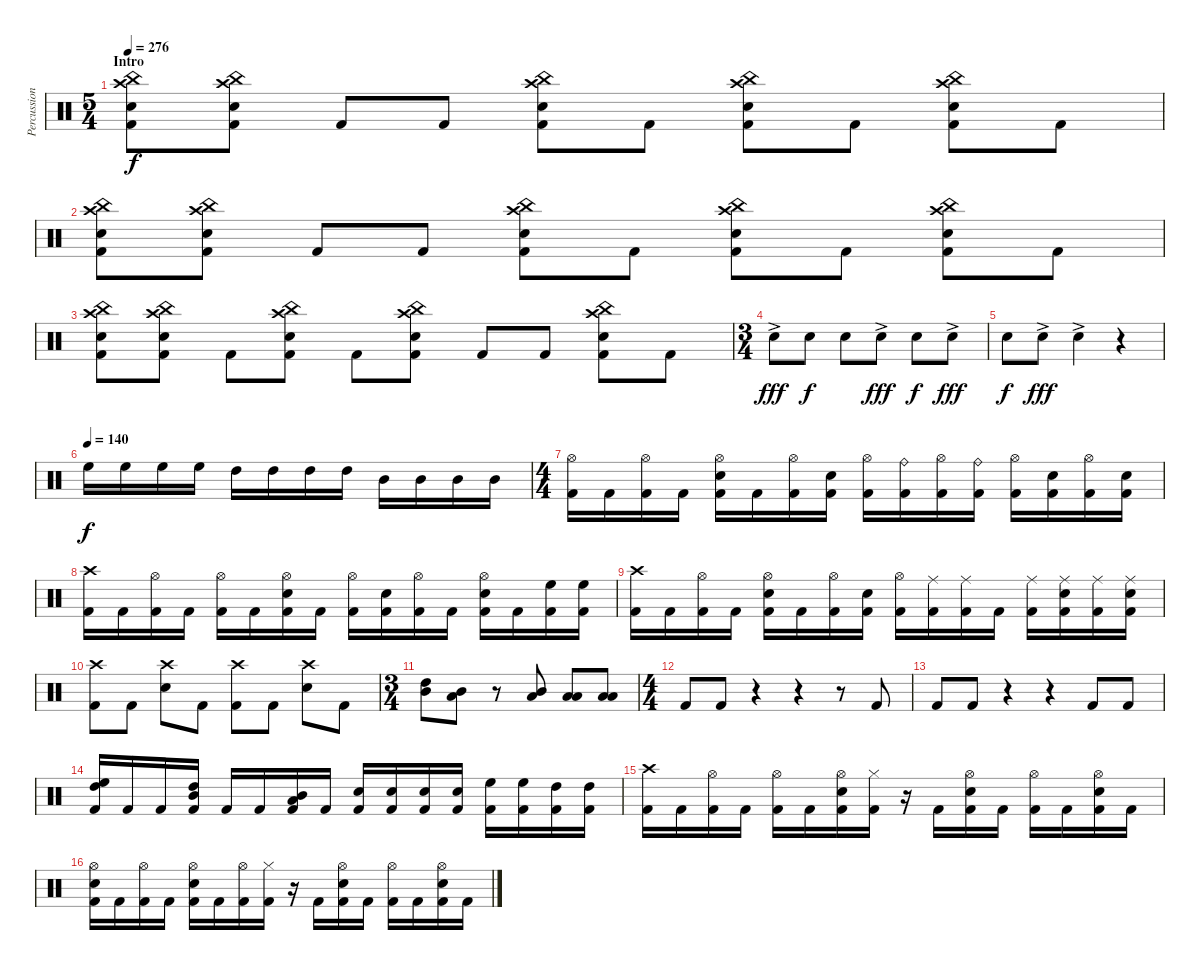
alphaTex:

\track ("Percussion" "Percussion") {instrument percussion}
\staff {score}
\articulation defaults
\ts (5 4)
\section ("" "Intro")
\tempo 276
\clef neutral
\ks c
("China (hit)" "Crash high (hit)" "Electric Snare (hit)" "Kick (hit) 2").8{dy f} ("China (hit)" "Crash high (hit)" "Electric Snare (hit)" "Kick (hit) 2").8 "Kick (hit) 2".8 "Kick (hit) 2".8 ("China (hit)" "Crash high (hit)" "Electric Snare (hit)" "Kick (hit) 2").8 "Kick (hit) 2".8 ("China (hit)" "Crash high (hit)" "Electric Snare (hit)" "Kick (hit) 2").8 "Kick (hit) 2".8 ("China (hit)" "Crash high (hit)" "Electric Snare (hit)" "Kick (hit) 2").8 "Kick (hit) 2".8 |
("China (hit)" "Crash high (hit)" "Electric Snare (hit)" "Kick (hit) 2").8 ("China (hit)" "Crash high (hit)" "Electric Snare (hit)" "Kick (hit) 2").8 "Kick (hit) 2".8 "Kick (hit) 2".8 ("China (hit)" "Crash high (hit)" "Electric Snare (hit)" "Kick (hit) 2").8 "Kick (hit) 2".8 ("China (hit)" "Crash high (hit)" "Electric Snare (hit)" "Kick (hit) 2").8 "Kick (hit) 2".8 ("China (hit)" "Crash high (hit)" "Electric Snare (hit)" "Kick (hit) 2").8 "Kick (hit) 2".8 |
("China (hit)" "Crash high (hit)" "Electric Snare (hit)" "Kick (hit) 2").8 ("China (hit)" "Crash high (hit)" "Electric Snare (hit)" "Kick (hit) 2").8 "Kick (hit) 2".8 ("China (hit)" "Crash high (hit)" "Electric Snare (hit)" "Kick (hit) 2").8 "Kick (hit) 2".8 ("China (hit)" "Crash high (hit)" "Electric Snare (hit)" "Kick (hit) 2").8 "Kick (hit) 2".8 "Kick (hit) 2".8 ("China (hit)" "Crash high (hit)" "Electric Snare (hit)" "Kick (hit) 2").8 "Kick (hit) 2".8 |
\ts (3 4)
"Electric Snare (hit)"{ac}.8{dy fff} "Electric Snare (hit)".8{dy f} "Electric Snare (hit)".8 "Electric Snare (hit)"{ac}.8{dy fff} "Electric Snare (hit)".8{dy f} "Electric Snare (hit)"{ac}.8{dy fff} |
"Electric Snare (hit)".8{dy f} "Electric Snare (hit)"{ac}.8{dy fff} "Electric Snare (hit)"{ac}.4 r.4 |
\tempo (140)
"High Floor Tom (hit)".16{dy f} "High Floor Tom (hit)".16 "High Floor Tom (hit)".16 "High Floor Tom (hit)".16 "High Tom (hit)".16 "High Tom (hit)".16 "High Tom (hit)".16 "High Tom (hit)".16 "Mid Tom (hit)".16 "Mid Tom (hit)".16 "Mid Tom (hit)".16 "Mid Tom (hit)".16 |
\ts (4 4)
("Hi-Hat (open)" "Kick (hit) 2").16 "Kick (hit) 2".16 ("Hi-Hat (open)" "Kick (hit) 2").16 "Kick (hit) 2".16 ("Hi-Hat (open)" "Electric Snare (hit)" "Kick (hit) 2").16 "Kick (hit) 2".16 ("Hi-Hat (open)" "Kick (hit) 2").16 ("Electric Snare (hit)" "Kick (hit) 2").16 ("Hi-Hat (open)" "Kick (hit) 2").16 ("Ride (bell)" "Kick (hit) 2").16 ("Hi-Hat (open)" "Kick (hit) 2").16 ("Ride (bell)" "Kick (hit) 2").16 ("Hi-Hat (open)" "Kick (hit) 2").16 ("Electric Snare (hit)" "Kick (hit) 2").16 ("Hi-Hat (open)" "Kick (hit) 2").16 ("Electric Snare (hit)" "Kick (hit) 2").16 |
("Crash high (hit)" "Kick (hit) 2").16 "Kick (hit) 2".16 ("Hi-Hat (open)" "Kick (hit) 2").16 "Kick (hit) 2".16 ("Hi-Hat (open)" "Kick (hit) 2").16 "Kick (hit) 2".16 ("Hi-Hat (open)" "Electric Snare (hit)" "Kick (hit) 2").16 "Kick (hit) 2".16 ("Hi-Hat (open)" "Kick (hit) 2").16 ("Electric Snare (hit)" "Kick (hit) 2").16 ("Hi-Hat (open)" "Kick (hit) 2").16 "Kick (hit) 2".16 ("Hi-Hat (open)" "Electric Snare (hit)" "Kick (hit) 2").16 "Kick (hit) 2".16 ("High Floor Tom (hit)" "Kick (hit) 2").16 ("High Floor Tom (hit)" "Kick (hit) 2").16 |
("Crash high (hit)" "Kick (hit) 2").16 "Kick (hit) 2".16 ("Hi-Hat (open)" "Kick (hit) 2").16 "Kick (hit) 2".16 ("Hi-Hat (open)" "Electric Snare (hit)" "Kick (hit) 2").16 "Kick (hit) 2".16 ("Hi-Hat (open)" "Kick (hit) 2").16 ("Electric Snare (hit)" "Kick (hit) 2").16 ("Hi-Hat (open)" "Kick (hit) 2").16 ("Ride (middle)" "Kick (hit) 2").16 ("Ride (middle)" "Kick (hit) 2").16 "Kick (hit) 2".16 ("Ride (middle)" "Kick (hit) 2").16 ("Ride (middle)" "Electric Snare (hit)" "Kick (hit) 2").16 ("Ride (middle)" "Kick (hit) 2").16 ("Ride (middle)" "Electric Snare (hit)" "Kick (hit) 2").16 |
("Crash high (hit)" "Kick (hit) 2").8 "Kick (hit) 2".8 ("Crash high (hit)" "Electric Snare (hit)").8 "Kick (hit) 2".8 ("Crash high (hit)" "Kick (hit) 2").8 "Kick (hit) 2".8 ("Crash high (hit)" "Electric Snare (hit)").8 "Kick (hit) 2".8 |
\ts (3 4)
("High Tom (hit)" "Mid Tom (hit)").8 ("Mid Tom (hit)" "Low Tom (hit)").8 r.8 ("Mid Tom (hit)" "Low Tom (hit)").8 ("Low Tom (hit)" "Low Floor Tom (hit)").8 ("Low Tom (hit)" "Low Floor Tom (hit)").8 |
\ts (4 4)
"Kick (hit) 2".8 "Kick (hit) 2".8 r.4 r.4 r.8 "Kick (hit) 2".8 |
"Kick (hit) 2".8 "Kick (hit) 2".8 r.4 r.4 "Kick (hit) 2".8 "Kick (hit) 2".8 |
("High Floor Tom (hit)" "High Tom (hit)" "Kick (hit) 2").16 "Kick (hit) 2".16 "Kick (hit) 2".16 ("High Tom (hit)" "Mid Tom (hit)" "Kick (hit) 2").16 "Kick (hit) 2".16 "Kick (hit) 2".16 ("Mid Tom (hit)" "Low Tom (hit)" "Kick (hit) 2").16 "Kick (hit) 2".16 ("Electric Snare (hit)" "Kick (hit) 2").16 ("Electric Snare (hit)" "Kick (hit) 2").16 ("Electric Snare (hit)" "Kick (hit) 2").16 ("Electric Snare (hit)" "Kick (hit) 2").16 ("High Floor Tom (hit)" "Kick (hit) 2").16 ("High Floor Tom (hit)" "Kick (hit) 2").16 ("High Tom (hit)" "Kick (hit) 2").16 ("High Tom (hit)" "Kick (hit) 2").16 |
("Crash high (hit)" "Kick (hit) 2").16 "Kick (hit) 2".16 ("Hi-Hat (open)" "Kick (hit) 2").16 "Kick (hit) 2".16 ("Hi-Hat (open)" "Kick (hit) 2").16 "Kick (hit) 2".16 ("Hi-Hat (open)" "Electric Snare (hit)" "Kick (hit) 2").16 ("Hi-Hat (closed)" "Kick (hit) 2").16 r.16 "Kick (hit) 2".16 ("Hi-Hat (open)" "Electric Snare (hit)" "Kick (hit) 2").16 "Kick (hit) 2".16 ("Hi-Hat (open)" "Kick (hit) 2").16 "Kick (hit) 2".16 ("Hi-Hat (open)" "Electric Snare (hit)" "Kick (hit) 2").16 "Kick (hit) 2".16 |
("Hi-Hat (open)" "Electric Snare (hit)" "Kick (hit) 2").16 "Kick (hit) 2".16 ("Hi-Hat (open)" "Kick (hit) 2").16 "Kick (hit) 2".16 ("Hi-Hat (open)" "Electric Snare (hit)" "Kick (hit) 2").16 "Kick (hit) 2".16 ("Hi-Hat (open)" "Kick (hit) 2").16 ("Hi-Hat (closed)" "Kick (hit) 2").16 r.16 "Kick (hit) 2".16 ("Hi-Hat (open)" "Electric Snare (hit)" "Kick (hit) 2").16 "Kick (hit) 2".16 ("Hi-Hat (open)" "Kick (hit) 2").16 "Kick (hit) 2".16 ("Hi-Hat (open)" "Electric Snare (hit)" "Kick (hit) 2").16 "Kick (hit) 2".16
